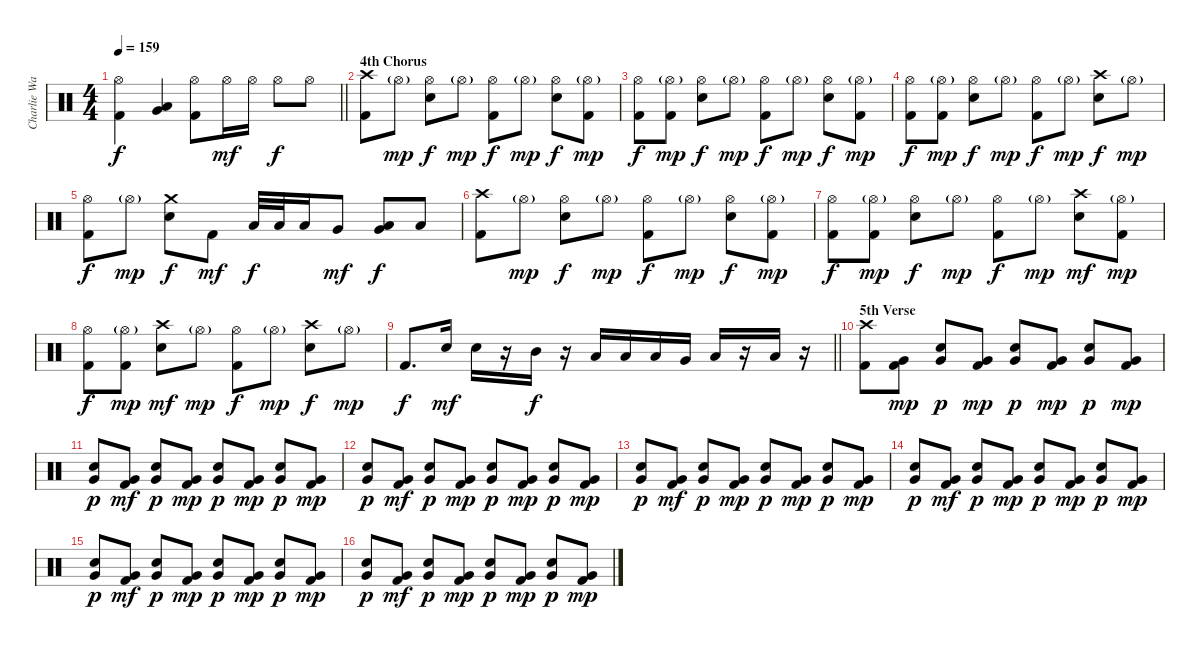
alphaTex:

\track ("Charlie Watts (Drums)" "Charlie Wa") {instrument percussion}
\staff {score}
\articulation defaults
\ts (4 4)
\tempo 159
\clef neutral
\barLineRight lightlight
\ks c
("Hi-Hat (open)" "Kick (hit) 2").4{dy f} ("Low Tom (hit)" "Very Low Tom (hit)").4 ("Hi-Hat (open)" "Kick (hit) 2").8 "Hi-Hat (open)".16{dy mf} "Hi-Hat (open)".16 "Hi-Hat (open)".8{dy f} "Hi-Hat (open)".8 |
\section ("" "4th Chorus")
("Crash high (hit)" "Kick (hit) 2").8 "Hi-Hat (open)"{g}.8{dy mp} ("Hi-Hat (open)" "Electric Snare (hit)").8{dy f} "Hi-Hat (open)"{g}.8{dy mp} ("Hi-Hat (open)" "Kick (hit) 2").8{dy f} "Hi-Hat (open)"{g}.8{dy mp} ("Hi-Hat (open)" "Electric Snare (hit)").8{dy f} ("Hi-Hat (open)"{g} "Kick (hit) 2").8{dy mp} |
("Hi-Hat (open)" "Kick (hit) 2").8{dy f} ("Hi-Hat (open)"{g} "Kick (hit) 2").8{dy mp} ("Hi-Hat (open)" "Electric Snare (hit)").8{dy f} "Hi-Hat (open)"{g}.8{dy mp} ("Hi-Hat (open)" "Kick (hit) 2").8{dy f} "Hi-Hat (open)"{g}.8{dy mp} ("Hi-Hat (open)" "Electric Snare (hit)").8{dy f} ("Hi-Hat (open)"{g} "Kick (hit) 2").8{dy mp} |
("Hi-Hat (open)" "Kick (hit) 2").8{dy f} ("Hi-Hat (open)"{g} "Kick (hit) 2").8{dy mp} ("Hi-Hat (open)" "Electric Snare (hit)").8{dy f} "Hi-Hat (open)"{g}.8{dy mp} ("Hi-Hat (open)" "Kick (hit) 2").8{dy f} "Hi-Hat (open)"{g}.8{dy mp} ("Crash high (hit)" "Electric Snare (hit)").8{dy f} "Hi-Hat (open)"{g}.8{dy mp} |
("Hi-Hat (open)" "Kick (hit) 2").8{dy f} "Hi-Hat (open)"{g}.8{dy mp} ("Crash medium (hit)" "Electric Snare (hit)").8{dy f} "Kick (hit) 2".8{dy mf} "Low Tom (hit)".32{dy f} "Low Tom (hit)".32 "Low Tom (hit)".16 "Very Low Tom (hit)".8{dy mf} ("Very Low Tom (hit)" "Low Floor Tom (hit)").8{dy f} "Low Floor Tom (hit)".8 |
("Crash high (hit)" "Kick (hit) 2").8 "Hi-Hat (open)"{g}.8{dy mp} ("Hi-Hat (open)" "Electric Snare (hit)").8{dy f} "Hi-Hat (open)"{g}.8{dy mp} ("Hi-Hat (open)" "Kick (hit) 2").8{dy f} "Hi-Hat (open)"{g}.8{dy mp} ("Hi-Hat (open)" "Electric Snare (hit)").8{dy f} ("Hi-Hat (open)"{g} "Kick (hit) 2").8{dy mp} |
("Hi-Hat (open)" "Kick (hit) 2").8{dy f} ("Hi-Hat (open)"{g} "Kick (hit) 2").8{dy mp} ("Hi-Hat (open)" "Electric Snare (hit)").8{dy f} "Hi-Hat (open)"{g}.8{dy mp} ("Hi-Hat (open)" "Kick (hit) 2").8{dy f} "Hi-Hat (open)"{g}.8{dy mp} ("Crash high (hit)" "Electric Snare (hit)").8{dy mf} ("Hi-Hat (open)"{g} "Kick (hit) 2").8{dy mp} |
("Hi-Hat (open)" "Kick (hit) 2").8{dy f} ("Hi-Hat (open)"{g} "Kick (hit) 2").8{dy mp} ("Crash high (hit)" "Electric Snare (hit)").8{dy mf} "Hi-Hat (open)"{g}.8{dy mp} ("Hi-Hat (open)" "Kick (hit) 2").8{dy f} "Hi-Hat (open)"{g}.8{dy mp} ("Crash high (hit)" "Electric Snare (hit)").8{dy f} "Hi-Hat (open)"{g}.8{dy mp} |
\barLineRight lightlight "Kick (hit) 2".8{d dy f} "Electric Snare (hit)".16{dy mf} "Electric Snare (hit)".16
r.16 "Mid Tom (hit)".16{dy f} r.16 "Low Tom (hit)".16 "Low Tom (hit)".16 "Low Tom (hit)".16 "Very Low Tom (hit)".16 "Low Floor Tom (hit)".16 r.16 "Low Floor Tom (hit)".16 r.16 |
\section ("" "5th Verse")
("Crash high (hit)" "Kick (hit) 2").8 ("Very Low Tom (hit)" "Kick (hit) 2").8{dy mp} ("Very Low Tom (hit)" "Electric Snare (hit)").8{dy p} ("Very Low Tom (hit)" "Kick (hit) 2").8{dy mp} ("Very Low Tom (hit)" "Electric Snare (hit)").8{dy p} ("Very Low Tom (hit)" "Kick (hit) 2").8{dy mp} ("Very Low Tom (hit)" "Electric Snare (hit)").8{dy p} ("Very Low Tom (hit)" "Kick (hit) 2").8{dy mp} |
("Very Low Tom (hit)" "Electric Snare (hit)").8{dy p} ("Very Low Tom (hit)" "Kick (hit) 2").8{dy mf} ("Very Low Tom (hit)" "Electric Snare (hit)").8{dy p} ("Very Low Tom (hit)" "Kick (hit) 2").8{dy mp} ("Very Low Tom (hit)" "Electric Snare (hit)").8{dy p} ("Very Low Tom (hit)" "Kick (hit) 2").8{dy mp} ("Very Low Tom (hit)" "Electric Snare (hit)").8{dy p} ("Very Low Tom (hit)" "Kick (hit) 2").8{dy mp} |
("Very Low Tom (hit)" "Electric Snare (hit)").8{dy p} ("Very Low Tom (hit)" "Kick (hit) 2").8{dy mf} ("Very Low Tom (hit)" "Electric Snare (hit)").8{dy p} ("Very Low Tom (hit)" "Kick (hit) 2").8{dy mp} ("Very Low Tom (hit)" "Electric Snare (hit)").8{dy p} ("Very Low Tom (hit)" "Kick (hit) 2").8{dy mp} ("Very Low Tom (hit)" "Electric Snare (hit)").8{dy p} ("Very Low Tom (hit)" "Kick (hit) 2").8{dy mp} |
("Very Low Tom (hit)" "Electric Snare (hit)").8{dy p} ("Very Low Tom (hit)" "Kick (hit) 2").8{dy mf} ("Very Low Tom (hit)" "Electric Snare (hit)").8{dy p} ("Very Low Tom (hit)" "Kick (hit) 2").8{dy mp} ("Very Low Tom (hit)" "Electric Snare (hit)").8{dy p} ("Very Low Tom (hit)" "Kick (hit) 2").8{dy mp} ("Very Low Tom (hit)" "Electric Snare (hit)").8{dy p} ("Very Low Tom (hit)" "Kick (hit) 2").8{dy mp} |
("Very Low Tom (hit)" "Electric Snare (hit)").8{dy p} ("Very Low Tom (hit)" "Kick (hit) 2").8{dy mf} ("Very Low Tom (hit)" "Electric Snare (hit)").8{dy p} ("Very Low Tom (hit)" "Kick (hit) 2").8{dy mp} ("Very Low Tom (hit)" "Electric Snare (hit)").8{dy p} ("Very Low Tom (hit)" "Kick (hit) 2").8{dy mp} ("Very Low Tom (hit)" "Electric Snare (hit)").8{dy p} ("Very Low Tom (hit)" "Kick (hit) 2").8{dy mp} |
("Very Low Tom (hit)" "Electric Snare (hit)").8{dy p} ("Very Low Tom (hit)" "Kick (hit) 2").8{dy mf} ("Very Low Tom (hit)" "Electric Snare (hit)").8{dy p} ("Very Low Tom (hit)" "Kick (hit) 2").8{dy mp} ("Very Low Tom (hit)" "Electric Snare (hit)").8{dy p} ("Very Low Tom (hit)" "Kick (hit) 2").8{dy mp} ("Very Low Tom (hit)" "Electric Snare (hit)").8{dy p} ("Very Low Tom (hit)" "Kick (hit) 2").8{dy mp} |
("Very Low Tom (hit)" "Electric Snare (hit)").8{dy p} ("Very Low Tom (hit)" "Kick (hit) 2").8{dy mf} ("Very Low Tom (hit)" "Electric Snare (hit)").8{dy p} ("Very Low Tom (hit)" "Kick (hit) 2").8{dy mp} ("Very Low Tom (hit)" "Electric Snare (hit)").8{dy p} ("Very Low Tom (hit)" "Kick (hit) 2").8{dy mp} ("Very Low Tom (hit)" "Electric Snare (hit)").8{dy p} ("Very Low Tom (hit)" "Kick (hit) 2").8{dy mp}
